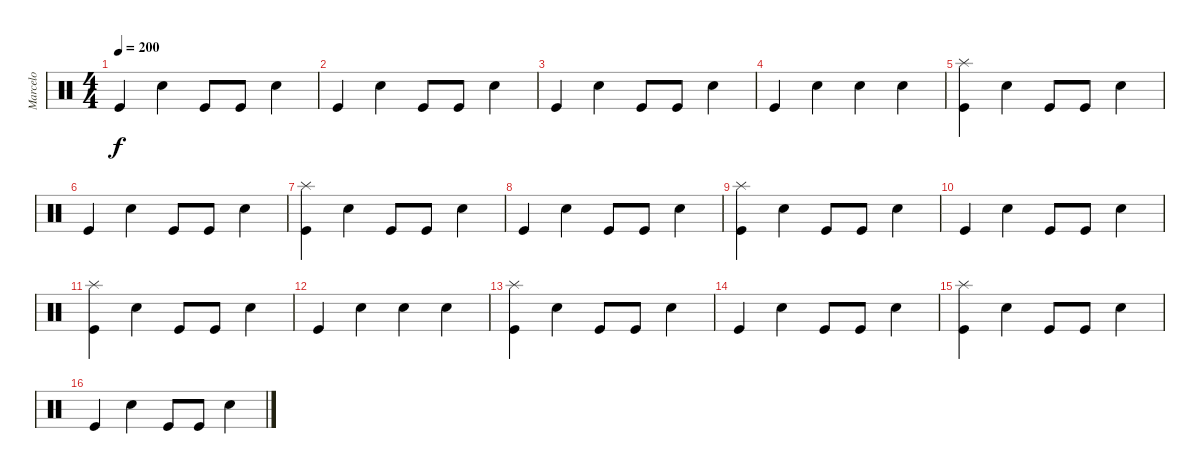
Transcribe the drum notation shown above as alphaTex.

\track ("Marcelo" "Marcelo") {instrument percussion}
\staff {score}
\articulation defaults
\ts (4 4)
\tempo 200
\clef neutral
\ks c "Kick (hit)".4{dy f} "Snare (hit) 2".4 "Kick (hit)".8 "Kick (hit)".8 "Snare (hit) 2".4
|
"Kick (hit)".4 "Snare (hit) 2".4 "Kick (hit)".8 "Kick (hit)".8 "Snare (hit) 2".4 |
"Kick (hit)".4 "Snare (hit) 2".4 "Kick (hit)".8 "Kick (hit)".8 "Snare (hit) 2".4 |
"Kick (hit)".4 "Snare (hit) 2".4 "Snare (hit) 2".4 "Snare (hit) 2".4 |
("Splash (hit)" "Kick (hit)").4 "Snare (hit) 2".4 "Kick (hit)".8 "Kick (hit)".8 "Snare (hit) 2".4 |
"Kick (hit)".4 "Snare (hit) 2".4 "Kick (hit)".8 "Kick (hit)".8 "Snare (hit) 2".4 |
("Splash (hit)" "Kick (hit)").4 "Snare (hit) 2".4 "Kick (hit)".8 "Kick (hit)".8 "Snare (hit) 2".4 |
"Kick (hit)".4 "Snare (hit) 2".4 "Kick (hit)".8 "Kick (hit)".8 "Snare (hit) 2".4 |
("Splash (hit)" "Kick (hit)").4 "Snare (hit) 2".4 "Kick (hit)".8 "Kick (hit)".8 "Snare (hit) 2".4 |
"Kick (hit)".4 "Snare (hit) 2".4 "Kick (hit)".8 "Kick (hit)".8 "Snare (hit) 2".4 |
("Splash (hit)" "Kick (hit)").4 "Snare (hit) 2".4 "Kick (hit)".8 "Kick (hit)".8 "Snare (hit) 2".4 |
"Kick (hit)".4 "Snare (hit) 2".4 "Snare (hit) 2".4 "Snare (hit) 2".4 |
("Splash (hit)" "Kick (hit)").4 "Snare (hit) 2".4 "Kick (hit)".8 "Kick (hit)".8 "Snare (hit) 2".4 |
"Kick (hit)".4 "Snare (hit) 2".4 "Kick (hit)".8 "Kick (hit)".8 "Snare (hit) 2".4 |
("Splash (hit)" "Kick (hit)").4 "Snare (hit) 2".4 "Kick (hit)".8 "Kick (hit)".8 "Snare (hit) 2".4 |
"Kick (hit)".4 "Snare (hit) 2".4 "Kick (hit)".8 "Kick (hit)".8 "Snare (hit) 2".4
